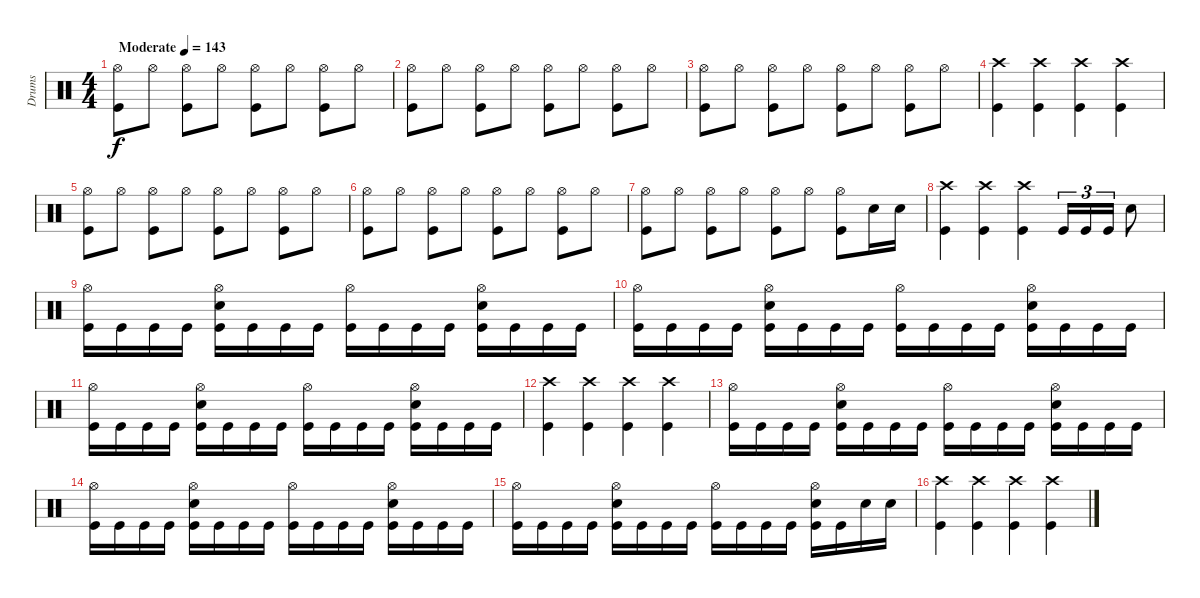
\track ("Drums" "Drums") {instrument percussion}
\staff {score}
\articulation defaults
\ts (4 4)
\tempo (143 "Moderate")
\clef neutral
\ks c
("Hi-Hat (open)" "Kick (hit)").8{dy f} "Hi-Hat (open)".8 ("Hi-Hat (open)" "Kick (hit)").8 "Hi-Hat (open)".8 ("Hi-Hat (open)" "Kick (hit)").8 "Hi-Hat (open)".8 ("Hi-Hat (open)" "Kick (hit)").8 "Hi-Hat (open)".8 |
("Hi-Hat (open)" "Kick (hit)").8 "Hi-Hat (open)".8 ("Hi-Hat (open)" "Kick (hit)").8 "Hi-Hat (open)".8 ("Hi-Hat (open)" "Kick (hit)").8 "Hi-Hat (open)".8 ("Hi-Hat (open)" "Kick (hit)").8 "Hi-Hat (open)".8 |
("Hi-Hat (open)" "Kick (hit)").8 "Hi-Hat (open)".8 ("Hi-Hat (open)" "Kick (hit)").8 "Hi-Hat (open)".8 ("Hi-Hat (open)" "Kick (hit)").8 "Hi-Hat (open)".8 ("Hi-Hat (open)" "Kick (hit)").8 "Hi-Hat (open)".8 |
("Crash high (hit)" "Kick (hit)").4 ("Crash high (hit)" "Kick (hit)").4 ("Crash high (hit)" "Kick (hit)").4 ("Crash high (hit)" "Kick (hit)").4 |
("Hi-Hat (open)" "Kick (hit)").8 "Hi-Hat (open)".8 ("Hi-Hat (open)" "Kick (hit)").8 "Hi-Hat (open)".8 ("Hi-Hat (open)" "Kick (hit)").8 "Hi-Hat (open)".8 ("Hi-Hat (open)" "Kick (hit)").8 "Hi-Hat (open)".8 |
("Hi-Hat (open)" "Kick (hit)").8 "Hi-Hat (open)".8 ("Hi-Hat (open)" "Kick (hit)").8 "Hi-Hat (open)".8 ("Hi-Hat (open)" "Kick (hit)").8 "Hi-Hat (open)".8 ("Hi-Hat (open)" "Kick (hit)").8 "Hi-Hat (open)".8 |
("Hi-Hat (open)" "Kick (hit)").8 "Hi-Hat (open)".8 ("Hi-Hat (open)" "Kick (hit)").8 "Hi-Hat (open)".8 ("Hi-Hat (open)" "Kick (hit)").8 "Hi-Hat (open)".8 ("Hi-Hat (open)" "Kick (hit)").8 "Snare (hit) 2".16 "Snare (hit) 2".16 |
("Crash high (hit)" "Kick (hit)").4 ("Crash high (hit)" "Kick (hit)").4 ("Crash high (hit)" "Kick (hit)").4 "Kick (hit)".16{tu (3 2)} "Kick (hit)".16{tu (3 2)} "Kick (hit)".16{tu (3 2)} "Snare (hit) 2".8 |
("Hi-Hat (open)" "Kick (hit)").16 "Kick (hit)".16 "Kick (hit)".16 "Kick (hit)".16 ("Hi-Hat (open)" "Snare (hit) 2" "Kick (hit)").16 "Kick (hit)".16 "Kick (hit)".16 "Kick (hit)".16 ("Hi-Hat (open)" "Kick (hit)").16 "Kick (hit)".16 "Kick (hit)".16 "Kick (hit)".16 ("Hi-Hat (open)" "Snare (hit) 2" "Kick (hit)").16 "Kick (hit)".16 "Kick (hit)".16 "Kick (hit)".16 |
("Hi-Hat (open)" "Kick (hit)").16 "Kick (hit)".16 "Kick (hit)".16 "Kick (hit)".16 ("Hi-Hat (open)" "Snare (hit) 2" "Kick (hit)").16 "Kick (hit)".16 "Kick (hit)".16 "Kick (hit)".16 ("Hi-Hat (open)" "Kick (hit)").16 "Kick (hit)".16 "Kick (hit)".16 "Kick (hit)".16 ("Hi-Hat (open)" "Snare (hit) 2" "Kick (hit)").16 "Kick (hit)".16 "Kick (hit)".16 "Kick (hit)".16 |
("Hi-Hat (open)" "Kick (hit)").16 "Kick (hit)".16 "Kick (hit)".16 "Kick (hit)".16 ("Hi-Hat (open)" "Snare (hit) 2" "Kick (hit)").16 "Kick (hit)".16 "Kick (hit)".16 "Kick (hit)".16 ("Hi-Hat (open)" "Kick (hit)").16 "Kick (hit)".16 "Kick (hit)".16 "Kick (hit)".16 ("Hi-Hat (open)" "Snare (hit) 2" "Kick (hit)").16 "Kick (hit)".16 "Kick (hit)".16 "Kick (hit)".16 |
("Crash high (hit)" "Kick (hit)").4 ("Crash high (hit)" "Kick (hit)").4 ("Crash high (hit)" "Kick (hit)").4 ("Crash high (hit)" "Kick (hit)").4 |
("Hi-Hat (open)" "Kick (hit)").16 "Kick (hit)".16 "Kick (hit)".16 "Kick (hit)".16 ("Hi-Hat (open)" "Snare (hit) 2" "Kick (hit)").16 "Kick (hit)".16 "Kick (hit)".16 "Kick (hit)".16 ("Hi-Hat (open)" "Kick (hit)").16 "Kick (hit)".16 "Kick (hit)".16 "Kick (hit)".16 ("Hi-Hat (open)" "Snare (hit) 2" "Kick (hit)").16 "Kick (hit)".16 "Kick (hit)".16 "Kick (hit)".16 |
("Hi-Hat (open)" "Kick (hit)").16 "Kick (hit)".16 "Kick (hit)".16 "Kick (hit)".16 ("Hi-Hat (open)" "Snare (hit) 2" "Kick (hit)").16 "Kick (hit)".16 "Kick (hit)".16 "Kick (hit)".16 ("Hi-Hat (open)" "Kick (hit)").16 "Kick (hit)".16 "Kick (hit)".16 "Kick (hit)".16 ("Hi-Hat (open)" "Snare (hit) 2" "Kick (hit)").16 "Kick (hit)".16 "Kick (hit)".16 "Kick (hit)".16 |
("Hi-Hat (open)" "Kick (hit)").16 "Kick (hit)".16 "Kick (hit)".16 "Kick (hit)".16 ("Hi-Hat (open)" "Snare (hit) 2" "Kick (hit)").16 "Kick (hit)".16 "Kick (hit)".16 "Kick (hit)".16 ("Hi-Hat (open)" "Kick (hit)").16 "Kick (hit)".16 "Kick (hit)".16 "Kick (hit)".16 ("Hi-Hat (open)" "Snare (hit) 2" "Kick (hit)").16 "Kick (hit)".16 "Snare (hit) 2".16 "Snare (hit) 2".16 |
("Crash high (hit)" "Kick (hit)").4 ("Crash high (hit)" "Kick (hit)").4 ("Crash high (hit)" "Kick (hit)").4 ("Crash high (hit)" "Kick (hit)").4
